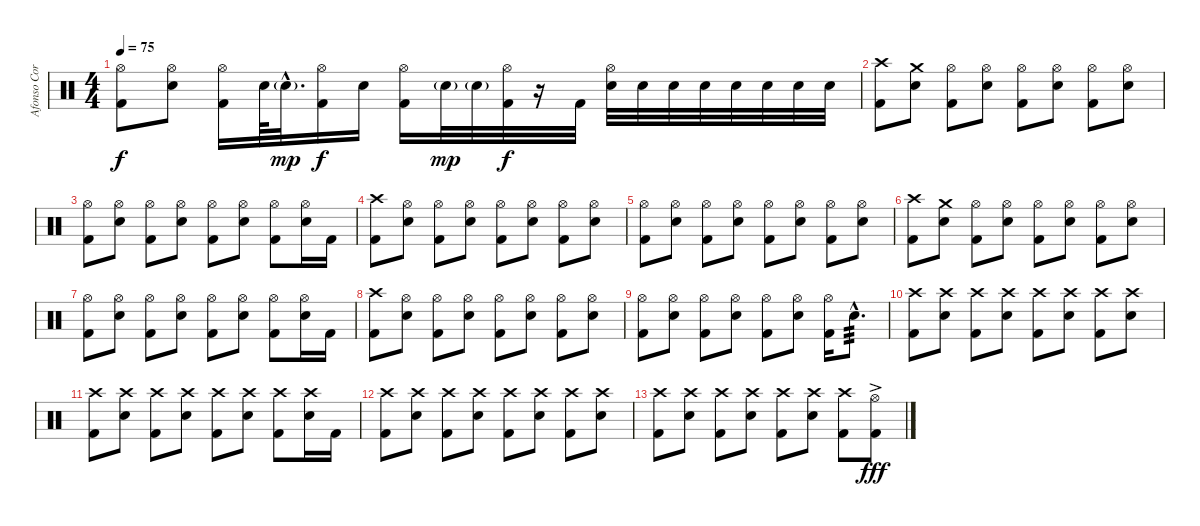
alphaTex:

\track ("Afonso Corte-Real" "Afonso Cor") {instrument percussion}
\staff {score}
\articulation defaults
\ts (4 4)
\tempo 75
\clef neutral
\ks c
("Hi-Hat (open)" "Kick (hit) 2").8{dy f} ("Hi-Hat (open)" "Electric Snare (hit)").8 ("Hi-Hat (open)" "Kick (hit) 2").16 "Electric Snare (hit)".64 "Electric Snare (hit)"{g hac}.32{d dy mp} ("Hi-Hat (open)" "Kick (hit) 2").16{dy f} "Electric Snare (hit)".16 ("Hi-Hat (open)" "Kick (hit) 2").16 "Electric Snare (hit)"{g}.32{dy mp} "Electric Snare (hit)"{g}.32 ("Hi-Hat (open)" "Kick (hit) 2").32{dy f} r.16 "Kick (hit) 2".32 ("Hi-Hat (open)" "Electric Snare (hit)").32 "Electric Snare (hit)".32 "Electric Snare (hit)".32 "Electric Snare (hit)".32 "Electric Snare (hit)".32 "Electric Snare (hit)".32 "Electric Snare (hit)".32 "Electric Snare (hit)".32 |
("Crash high (hit)" "Kick (hit) 2").8 ("Crash medium (hit)" "Electric Snare (hit)").8 ("Hi-Hat (open)" "Kick (hit) 2").8 ("Hi-Hat (open)" "Electric Snare (hit)").8 ("Hi-Hat (open)" "Kick (hit) 2").8 ("Hi-Hat (open)" "Electric Snare (hit)").8 ("Hi-Hat (open)" "Kick (hit) 2").8 ("Hi-Hat (open)" "Electric Snare (hit)").8 |
("Hi-Hat (open)" "Kick (hit) 2").8 ("Hi-Hat (open)" "Electric Snare (hit)").8 ("Hi-Hat (open)" "Kick (hit) 2").8 ("Hi-Hat (open)" "Electric Snare (hit)").8 ("Hi-Hat (open)" "Kick (hit) 2").8 ("Hi-Hat (open)" "Electric Snare (hit)").8 ("Hi-Hat (open)" "Kick (hit) 2").8 ("Hi-Hat (open)" "Electric Snare (hit)").16 "Kick (hit) 2".16 |
("Crash high (hit)" "Kick (hit) 2").8 ("Hi-Hat (open)" "Electric Snare (hit)").8 ("Hi-Hat (open)" "Kick (hit) 2").8 ("Hi-Hat (open)" "Electric Snare (hit)").8 ("Hi-Hat (open)" "Kick (hit) 2").8 ("Hi-Hat (open)" "Electric Snare (hit)").8 ("Hi-Hat (open)" "Kick (hit) 2").8 ("Hi-Hat (open)" "Electric Snare (hit)").8 |
("Hi-Hat (open)" "Kick (hit) 2").8 ("Hi-Hat (open)" "Electric Snare (hit)").8 ("Hi-Hat (open)" "Kick (hit) 2").8 ("Hi-Hat (open)" "Electric Snare (hit)").8 ("Hi-Hat (open)" "Kick (hit) 2").8 ("Hi-Hat (open)" "Electric Snare (hit)").8 ("Hi-Hat (open)" "Kick (hit) 2").8 ("Hi-Hat (open)" "Electric Snare (hit)").8 |
("Crash high (hit)" "Kick (hit) 2").8 ("Crash medium (hit)" "Electric Snare (hit)").8 ("Hi-Hat (open)" "Kick (hit) 2").8 ("Hi-Hat (open)" "Electric Snare (hit)").8 ("Hi-Hat (open)" "Kick (hit) 2").8 ("Hi-Hat (open)" "Electric Snare (hit)").8 ("Hi-Hat (open)" "Kick (hit) 2").8 ("Hi-Hat (open)" "Electric Snare (hit)").8 |
("Hi-Hat (open)" "Kick (hit) 2").8 ("Hi-Hat (open)" "Electric Snare (hit)").8 ("Hi-Hat (open)" "Kick (hit) 2").8 ("Hi-Hat (open)" "Electric Snare (hit)").8 ("Hi-Hat (open)" "Kick (hit) 2").8 ("Hi-Hat (open)" "Electric Snare (hit)").8 ("Hi-Hat (open)" "Kick (hit) 2").8 ("Hi-Hat (open)" "Electric Snare (hit)").16 "Kick (hit) 2".16 |
("Crash high (hit)" "Kick (hit) 2").8 ("Hi-Hat (open)" "Electric Snare (hit)").8 ("Hi-Hat (open)" "Kick (hit) 2").8 ("Hi-Hat (open)" "Electric Snare (hit)").8 ("Hi-Hat (open)" "Kick (hit) 2").8 ("Hi-Hat (open)" "Electric Snare (hit)").8 ("Hi-Hat (open)" "Kick (hit) 2").8 ("Hi-Hat (open)" "Electric Snare (hit)").8 |
("Hi-Hat (open)" "Kick (hit) 2").8 ("Hi-Hat (open)" "Electric Snare (hit)").8 ("Hi-Hat (open)" "Kick (hit) 2").8 ("Hi-Hat (open)" "Electric Snare (hit)").8 ("Hi-Hat (open)" "Kick (hit) 2").8 ("Hi-Hat (open)" "Electric Snare (hit)").8 ("Hi-Hat (open)" "Kick (hit) 2").16 "Electric Snare (hit)"{hac}.8{d tp 3} |
("Crash high (hit)" "Kick (hit) 2").8 ("Crash high (hit)" "Electric Snare (hit)").8 ("Crash high (hit)" "Kick (hit) 2").8 ("Crash high (hit)" "Electric Snare (hit)").8 ("Crash high (hit)" "Kick (hit) 2").8 ("Crash high (hit)" "Electric Snare (hit)").8 ("Crash high (hit)" "Kick (hit) 2").8 ("Crash high (hit)" "Electric Snare (hit)").8 |
("Crash high (hit)" "Kick (hit) 2").8 ("Crash high (hit)" "Electric Snare (hit)").8 ("Crash high (hit)" "Kick (hit) 2").8 ("Crash high (hit)" "Electric Snare (hit)").8 ("Crash high (hit)" "Kick (hit) 2").8 ("Crash high (hit)" "Electric Snare (hit)").8 ("Crash high (hit)" "Kick (hit) 2").8 ("Crash high (hit)" "Electric Snare (hit)").16 "Kick (hit) 2".16 |
("Crash high (hit)" "Kick (hit) 2").8 ("Crash high (hit)" "Electric Snare (hit)").8 ("Crash high (hit)" "Kick (hit) 2").8 ("Crash high (hit)" "Electric Snare (hit)").8 ("Crash high (hit)" "Kick (hit) 2").8 ("Crash high (hit)" "Electric Snare (hit)").8 ("Crash high (hit)" "Kick (hit) 2").8 ("Crash high (hit)" "Electric Snare (hit)").8 |
("Crash high (hit)" "Kick (hit) 2").8 ("Crash high (hit)" "Electric Snare (hit)").8 ("Crash high (hit)" "Kick (hit) 2").8 ("Crash high (hit)" "Electric Snare (hit)").8 ("Crash high (hit)" "Kick (hit) 2").8 ("Crash high (hit)" "Electric Snare (hit)").8 ("Crash high (hit)" "Kick (hit) 2").8 ("Hi-Hat (open)"{ac} "Kick (hit) 2").8{dy fff}
